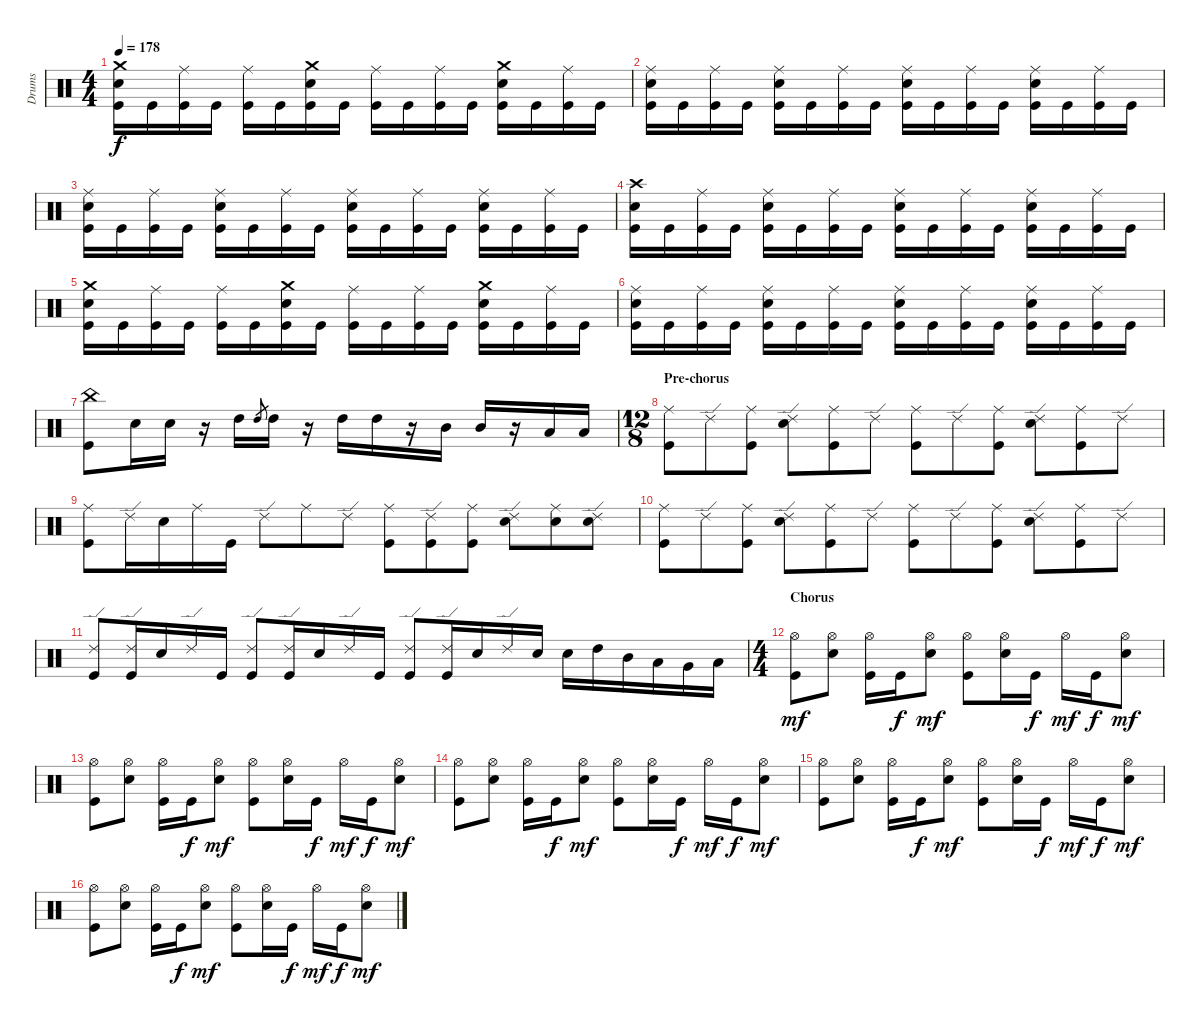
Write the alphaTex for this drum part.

\track ("Drums" "Drums") {instrument percussion}
\staff {score}
\articulation defaults
\ts (4 4)
\tempo 178
\clef neutral
\ks c
("Crash medium (hit)" "Electric Snare (hit)" "Kick (hit)").16{dy f} "Kick (hit)".16 ("Ride (middle)" "Kick (hit)").16 "Kick (hit)".16 ("Ride (middle)" "Kick (hit)").16 "Kick (hit)".16 ("Crash medium (hit)" "Electric Snare (hit)" "Kick (hit)").16 "Kick (hit)".16 ("Ride (middle)" "Kick (hit)").16 "Kick (hit)".16 ("Ride (middle)" "Kick (hit)").16 "Kick (hit)".16 ("Crash medium (hit)" "Electric Snare (hit)" "Kick (hit)").16 "Kick (hit)".16 ("Ride (middle)" "Kick (hit)").16 "Kick (hit)".16 |
("Ride (middle)" "Electric Snare (hit)" "Kick (hit)").16 "Kick (hit)".16 ("Ride (middle)" "Kick (hit)").16 "Kick (hit)".16 ("Ride (middle)" "Electric Snare (hit)" "Kick (hit)").16 "Kick (hit)".16 ("Ride (middle)" "Kick (hit)").16 "Kick (hit)".16 ("Ride (middle)" "Electric Snare (hit)" "Kick (hit)").16 "Kick (hit)".16 ("Ride (middle)" "Kick (hit)").16 "Kick (hit)".16 ("Ride (middle)" "Electric Snare (hit)" "Kick (hit)").16 "Kick (hit)".16 ("Ride (middle)" "Kick (hit)").16 "Kick (hit)".16 |
("Ride (middle)" "Electric Snare (hit)" "Kick (hit)").16 "Kick (hit)".16 ("Ride (middle)" "Kick (hit)").16 "Kick (hit)".16 ("Ride (middle)" "Electric Snare (hit)" "Kick (hit)").16 "Kick (hit)".16 ("Ride (middle)" "Kick (hit)").16 "Kick (hit)".16 ("Ride (middle)" "Electric Snare (hit)" "Kick (hit)").16 "Kick (hit)".16 ("Ride (middle)" "Kick (hit)").16 "Kick (hit)".16 ("Ride (middle)" "Electric Snare (hit)" "Kick (hit)").16 "Kick (hit)".16 ("Ride (middle)" "Kick (hit)").16 "Kick (hit)".16 |
("Crash high (hit)" "Electric Snare (hit)" "Kick (hit)").16 "Kick (hit)".16 ("Ride (middle)" "Kick (hit)").16 "Kick (hit)".16 ("Ride (middle)" "Electric Snare (hit)" "Kick (hit)").16 "Kick (hit)".16 ("Ride (middle)" "Kick (hit)").16 "Kick (hit)".16 ("Ride (middle)" "Electric Snare (hit)" "Kick (hit)").16 "Kick (hit)".16 ("Ride (middle)" "Kick (hit)").16 "Kick (hit)".16 ("Ride (middle)" "Electric Snare (hit)" "Kick (hit)").16 "Kick (hit)".16 ("Ride (middle)" "Kick (hit)").16 "Kick (hit)".16 |
("Crash medium (hit)" "Electric Snare (hit)" "Kick (hit)").16 "Kick (hit)".16 ("Ride (middle)" "Kick (hit)").16 "Kick (hit)".16 ("Ride (middle)" "Kick (hit)").16 "Kick (hit)".16 ("Crash medium (hit)" "Electric Snare (hit)" "Kick (hit)").16 "Kick (hit)".16 ("Ride (middle)" "Kick (hit)").16 "Kick (hit)".16 ("Ride (middle)" "Kick (hit)").16 "Kick (hit)".16 ("Crash medium (hit)" "Electric Snare (hit)" "Kick (hit)").16 "Kick (hit)".16 ("Ride (middle)" "Kick (hit)").16 "Kick (hit)".16 |
("Ride (middle)" "Electric Snare (hit)" "Kick (hit)").16 "Kick (hit)".16 ("Ride (middle)" "Kick (hit)").16 "Kick (hit)".16 ("Ride (middle)" "Electric Snare (hit)" "Kick (hit)").16 "Kick (hit)".16 ("Ride (middle)" "Kick (hit)").16 "Kick (hit)".16 ("Ride (middle)" "Electric Snare (hit)" "Kick (hit)").16 "Kick (hit)".16 ("Ride (middle)" "Kick (hit)").16 "Kick (hit)".16 ("Ride (middle)" "Electric Snare (hit)" "Kick (hit)").16 "Kick (hit)".16 ("Ride (middle)" "Kick (hit)").16 "Kick (hit)".16 |
("China (hit)" "Kick (hit)").8 "Electric Snare (hit)".16 "Electric Snare (hit)".16 r.16 "High Tom (hit)".16 "High Tom (hit)".8{gr} "High Tom (hit)".16 r.16 "High Tom (hit)".16 "High Tom (hit)".16 r.16 "Mid Tom (hit)".16 "Mid Tom (hit)".16 r.16 "Low Tom (hit)".16 "Low Tom (hit)".16 |
\ts (12 8)
\section ("" "Pre-chorus")
("Ride (middle)" "Kick (hit)").8 "Ride (edge) 2".8 ("Ride (middle)" "Kick (hit)").8 ("Ride (edge) 2" "Electric Snare (hit)").8 ("Ride (middle)" "Kick (hit)").8 "Ride (edge) 2".8 ("Ride (middle)" "Kick (hit)").8 "Ride (edge) 2".8 ("Ride (middle)" "Kick (hit)").8 ("Ride (edge) 2" "Electric Snare (hit)").8 ("Ride (middle)" "Kick (hit)").8 "Ride (edge) 2".8 |
("Ride (middle)" "Kick (hit)").8 "Ride (edge) 2".16 "Electric Snare (hit)".16 "Ride (middle)".16 "Kick (hit)".16 "Ride (edge) 2".8 "Ride (middle)".8 "Ride (edge) 2".8 ("Ride (middle)" "Kick (hit)").8 ("Ride (edge) 2" "Kick (hit)").8 ("Ride (middle)" "Kick (hit)").8 ("Ride (edge) 2" "Electric Snare (hit)").8 ("Ride (middle)" "Electric Snare (hit)").8 ("Ride (edge) 2" "Electric Snare (hit)").8 |
("Ride (middle)" "Kick (hit)").8 "Ride (edge) 2".8 ("Ride (middle)" "Kick (hit)").8 ("Ride (edge) 2" "Electric Snare (hit)").8 ("Ride (middle)" "Kick (hit)").8 "Ride (edge) 2".8 ("Ride (middle)" "Kick (hit)").8 "Ride (edge) 2".8 ("Ride (middle)" "Kick (hit)").8 ("Ride (edge) 2" "Electric Snare (hit)").8 ("Ride (middle)" "Kick (hit)").8 "Ride (edge) 2".8 |
("Ride (edge) 2" "Kick (hit)").8 ("Ride (edge) 2" "Kick (hit)").16 "Electric Snare (hit)".16 "Ride (edge) 2".16 "Kick (hit)".16 ("Ride (edge) 2" "Kick (hit)").8 ("Ride (edge) 2" "Kick (hit)").16 "Electric Snare (hit)".16 "Ride (edge) 2".16 "Kick (hit)".16 ("Ride (edge) 2" "Kick (hit)").8 ("Ride (edge) 2" "Kick (hit)").16 "Electric Snare (hit)".16 "Ride (edge) 2".16 "Electric Snare (hit)".16 "Electric Snare (hit)".16 "High Tom (hit)".16 "Mid Tom (hit)".16 "Low Tom (hit)".16 "Very Low Tom (hit)".16 "Low Floor Tom (hit)".16 |
\ts (4 4)
\section ("" "Chorus")
("Hi-Hat (open)" "Kick (hit)").8{dy mf} ("Hi-Hat (open)" "Electric Snare (hit)").8 ("Hi-Hat (open)" "Kick (hit)").16 "Kick (hit)".16{dy f} ("Hi-Hat (open)" "Electric Snare (hit)").8{dy mf} ("Hi-Hat (open)" "Kick (hit)").8 ("Hi-Hat (open)" "Electric Snare (hit)").16 "Kick (hit)".16{dy f} "Hi-Hat (open)".16{dy mf} "Kick (hit)".16{dy f} ("Hi-Hat (open)" "Electric Snare (hit)").8{dy mf} |
("Hi-Hat (open)" "Kick (hit)").8 ("Hi-Hat (open)" "Electric Snare (hit)").8 ("Hi-Hat (open)" "Kick (hit)").16 "Kick (hit)".16{dy f} ("Hi-Hat (open)" "Electric Snare (hit)").8{dy mf} ("Hi-Hat (open)" "Kick (hit)").8 ("Hi-Hat (open)" "Electric Snare (hit)").16 "Kick (hit)".16{dy f} "Hi-Hat (open)".16{dy mf} "Kick (hit)".16{dy f} ("Hi-Hat (open)" "Electric Snare (hit)").8{dy mf} |
("Hi-Hat (open)" "Kick (hit)").8 ("Hi-Hat (open)" "Electric Snare (hit)").8 ("Hi-Hat (open)" "Kick (hit)").16 "Kick (hit)".16{dy f} ("Hi-Hat (open)" "Electric Snare (hit)").8{dy mf} ("Hi-Hat (open)" "Kick (hit)").8 ("Hi-Hat (open)" "Electric Snare (hit)").16 "Kick (hit)".16{dy f} "Hi-Hat (open)".16{dy mf} "Kick (hit)".16{dy f} ("Hi-Hat (open)" "Electric Snare (hit)").8{dy mf} |
("Hi-Hat (open)" "Kick (hit)").8 ("Hi-Hat (open)" "Electric Snare (hit)").8 ("Hi-Hat (open)" "Kick (hit)").16 "Kick (hit)".16{dy f} ("Hi-Hat (open)" "Electric Snare (hit)").8{dy mf} ("Hi-Hat (open)" "Kick (hit)").8 ("Hi-Hat (open)" "Electric Snare (hit)").16 "Kick (hit)".16{dy f} "Hi-Hat (open)".16{dy mf} "Kick (hit)".16{dy f} ("Hi-Hat (open)" "Electric Snare (hit)").8{dy mf} |
("Hi-Hat (open)" "Kick (hit)").8 ("Hi-Hat (open)" "Electric Snare (hit)").8 ("Hi-Hat (open)" "Kick (hit)").16 "Kick (hit)".16{dy f} ("Hi-Hat (open)" "Electric Snare (hit)").8{dy mf} ("Hi-Hat (open)" "Kick (hit)").8 ("Hi-Hat (open)" "Electric Snare (hit)").16 "Kick (hit)".16{dy f} "Hi-Hat (open)".16{dy mf} "Kick (hit)".16{dy f} ("Hi-Hat (open)" "Electric Snare (hit)").8{dy mf}
